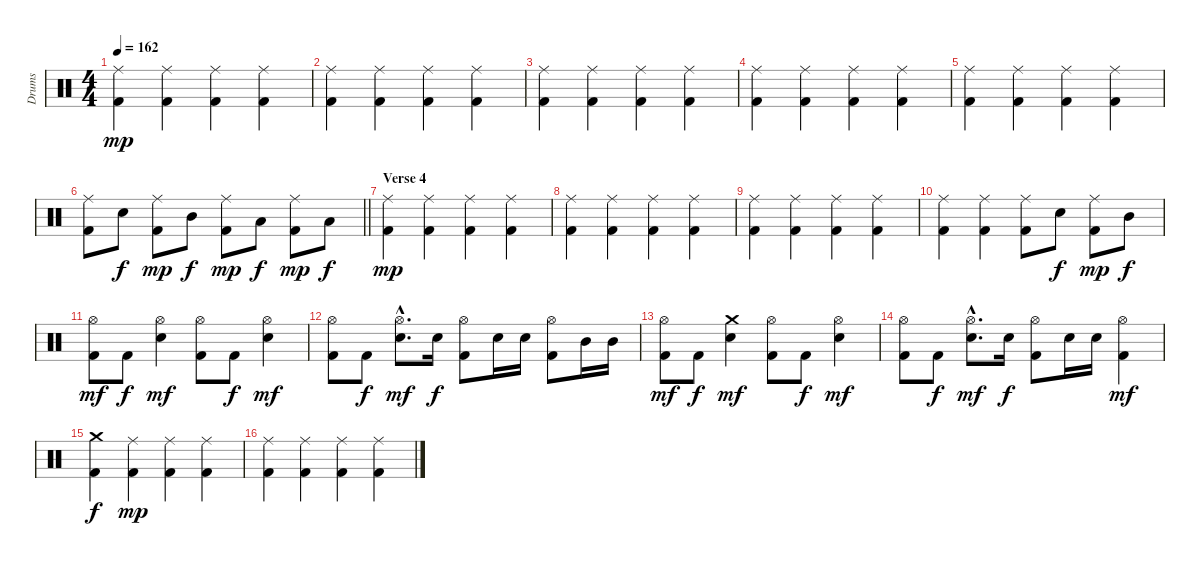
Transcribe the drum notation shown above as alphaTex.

\track ("Drums" "Drums") {instrument percussion}
\staff {score}
\articulation defaults
\ts (4 4)
\tempo 162
\clef neutral
\ks c
("Ride (middle)" "Kick (hit) 2").4{dy mp} ("Ride (middle)" "Kick (hit) 2").4 ("Ride (middle)" "Kick (hit) 2").4 ("Ride (middle)" "Kick (hit) 2").4 |
("Ride (middle)" "Kick (hit) 2").4 ("Ride (middle)" "Kick (hit) 2").4 ("Ride (middle)" "Kick (hit) 2").4 ("Ride (middle)" "Kick (hit) 2").4 |
("Ride (middle)" "Kick (hit) 2").4 ("Ride (middle)" "Kick (hit) 2").4 ("Ride (middle)" "Kick (hit) 2").4 ("Ride (middle)" "Kick (hit) 2").4 |
("Ride (middle)" "Kick (hit) 2").4 ("Ride (middle)" "Kick (hit) 2").4 ("Ride (middle)" "Kick (hit) 2").4 ("Ride (middle)" "Kick (hit) 2").4 |
("Ride (middle)" "Kick (hit) 2").4 ("Ride (middle)" "Kick (hit) 2").4 ("Ride (middle)" "Kick (hit) 2").4 ("Ride (middle)" "Kick (hit) 2").4 |
\barLineRight lightlight
("Ride (middle)" "Kick (hit) 2").8 "Electric Snare (hit)".8{dy f} ("Ride (middle)" "Kick (hit) 2").8{dy mp} "Mid Tom (hit)".8{dy f} ("Ride (middle)" "Kick (hit) 2").8{dy mp} "Low Tom (hit)".8{dy f} ("Ride (middle)" "Kick (hit) 2").8{dy mp} "Low Floor Tom (hit)".8{dy f} |
\section ("" "Verse 4")
("Ride (middle)" "Kick (hit) 2").4{dy mp} ("Ride (middle)" "Kick (hit) 2").4 ("Ride (middle)" "Kick (hit) 2").4 ("Ride (middle)" "Kick (hit) 2").4 |
("Ride (middle)" "Kick (hit) 2").4 ("Ride (middle)" "Kick (hit) 2").4 ("Ride (middle)" "Kick (hit) 2").4 ("Ride (middle)" "Kick (hit) 2").4 |
("Ride (middle)" "Kick (hit) 2").4 ("Ride (middle)" "Kick (hit) 2").4 ("Ride (middle)" "Kick (hit) 2").4 ("Ride (middle)" "Kick (hit) 2").4 |
("Ride (middle)" "Kick (hit) 2").4 ("Ride (middle)" "Kick (hit) 2").4 ("Ride (middle)" "Kick (hit) 2").8 "Electric Snare (hit)".8{dy f} ("Ride (middle)" "Kick (hit) 2").8{dy mp} "Mid Tom (hit)".8{dy f} |
("Hi-Hat (open)" "Kick (hit) 2").8{dy mf} "Kick (hit) 2".8{dy f} ("Hi-Hat (open)" "Electric Snare (hit)").4{dy mf} ("Hi-Hat (open)" "Kick (hit) 2").8 "Kick (hit) 2".8{dy f} ("Hi-Hat (open)" "Electric Snare (hit)").4{dy mf} |
("Hi-Hat (open)" "Kick (hit) 2").8 "Kick (hit) 2".8{dy f} ("Hi-Hat (open)"{hac} "Electric Snare (hit)"{hac}).8{d dy mf} "Electric Snare (hit)".16{dy f} ("Hi-Hat (open)" "Kick (hit) 2").8 "Electric Snare (hit)".16 "Electric Snare (hit)".16 ("Hi-Hat (open)" "Kick (hit) 2").8 "Mid Tom (hit)".16 "Mid Tom (hit)".16 |
("Hi-Hat (open)" "Kick (hit) 2").8{dy mf} "Kick (hit) 2".8{dy f} ("Crash medium (hit)" "Electric Snare (hit)").4{dy mf} ("Hi-Hat (open)" "Kick (hit) 2").8 "Kick (hit) 2".8{dy f} ("Hi-Hat (open)" "Electric Snare (hit)").4{dy mf} |
("Hi-Hat (open)" "Kick (hit) 2").8 "Kick (hit) 2".8{dy f} ("Hi-Hat (open)"{hac} "Electric Snare (hit)"{hac}).8{d dy mf} "Electric Snare (hit)".16{dy f} ("Hi-Hat (open)" "Kick (hit) 2").8 "Electric Snare (hit)".16 "Electric Snare (hit)".16 ("Hi-Hat (open)" "Kick (hit) 2").4{dy mf} |
("Crash medium (hit)" "Kick (hit) 2").4{dy f} ("Ride (middle)" "Kick (hit) 2").4{dy mp} ("Ride (middle)" "Kick (hit) 2").4 ("Ride (middle)" "Kick (hit) 2").4 |
("Ride (middle)" "Kick (hit) 2").4 ("Ride (middle)" "Kick (hit) 2").4 ("Ride (middle)" "Kick (hit) 2").4 ("Ride (middle)" "Kick (hit) 2").4
